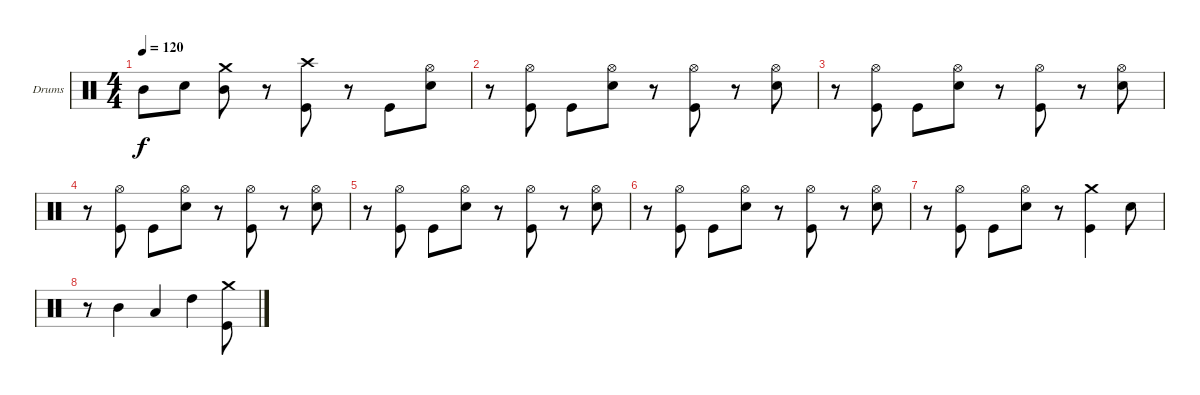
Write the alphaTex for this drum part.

\defaultSystemsLayout 4
\bracketExtendMode groupsimilarinstruments
\firstSystemTrackNameOrientation horizontal
\otherSystemsTrackNameOrientation horizontal
\track ("Drumkit" "Drums") {instrument percussion}
\staff {score}
\articulation defaults
\ts (4 4)
\tempo 120
\clef neutral
\ks c "Mid Tom (hit)".8{dy f} "Snare (hit) 2".8
("Mid Tom (hit)" "Crash medium (hit)").8 r.8 ("Kick (hit)" "Crash high (hit)").8 r.8 "Kick (hit)".8 ("Snare (hit) 2" "Hi-Hat (open)").8 |
r.8 ("Kick (hit)" "Hi-Hat (open)").8 "Kick (hit)".8 ("Snare (hit) 2" "Hi-Hat (open)").8 r.8 ("Kick (hit)" "Hi-Hat (open)").8 r.8 ("Snare (hit) 2" "Hi-Hat (open)").8 |
r.8 ("Kick (hit)" "Hi-Hat (open)").8 "Kick (hit)".8 ("Snare (hit) 2" "Hi-Hat (open)").8 r.8 ("Kick (hit)" "Hi-Hat (open)").8 r.8 ("Snare (hit) 2" "Hi-Hat (open)").8 |
r.8 ("Kick (hit)" "Hi-Hat (open)").8 "Kick (hit)".8 ("Snare (hit) 2" "Hi-Hat (open)").8 r.8 ("Kick (hit)" "Hi-Hat (open)").8 r.8 ("Snare (hit) 2" "Hi-Hat (open)").8 |
r.8 ("Kick (hit)" "Hi-Hat (open)").8 "Kick (hit)".8 ("Snare (hit) 2" "Hi-Hat (open)").8 r.8 ("Kick (hit)" "Hi-Hat (open)").8 r.8 ("Snare (hit) 2" "Hi-Hat (open)").8 |
r.8 ("Kick (hit)" "Hi-Hat (open)").8 "Kick (hit)".8 ("Snare (hit) 2" "Hi-Hat (open)").8 r.8 ("Kick (hit)" "Hi-Hat (open)").8 r.8 ("Snare (hit) 2" "Hi-Hat (open)").8 |
r.8 ("Kick (hit)" "Hi-Hat (open)").8 "Kick (hit)".8 ("Snare (hit) 2" "Hi-Hat (open)").8 r.8 ("Crash medium (hit)" "Kick (hit)").4 "Snare (hit) 2".8 |
r.8 "Mid Tom (hit)".4 "Low Tom (hit)".4 "High Tom (hit)".4 ("Crash medium (hit)" "Kick (hit)").8
